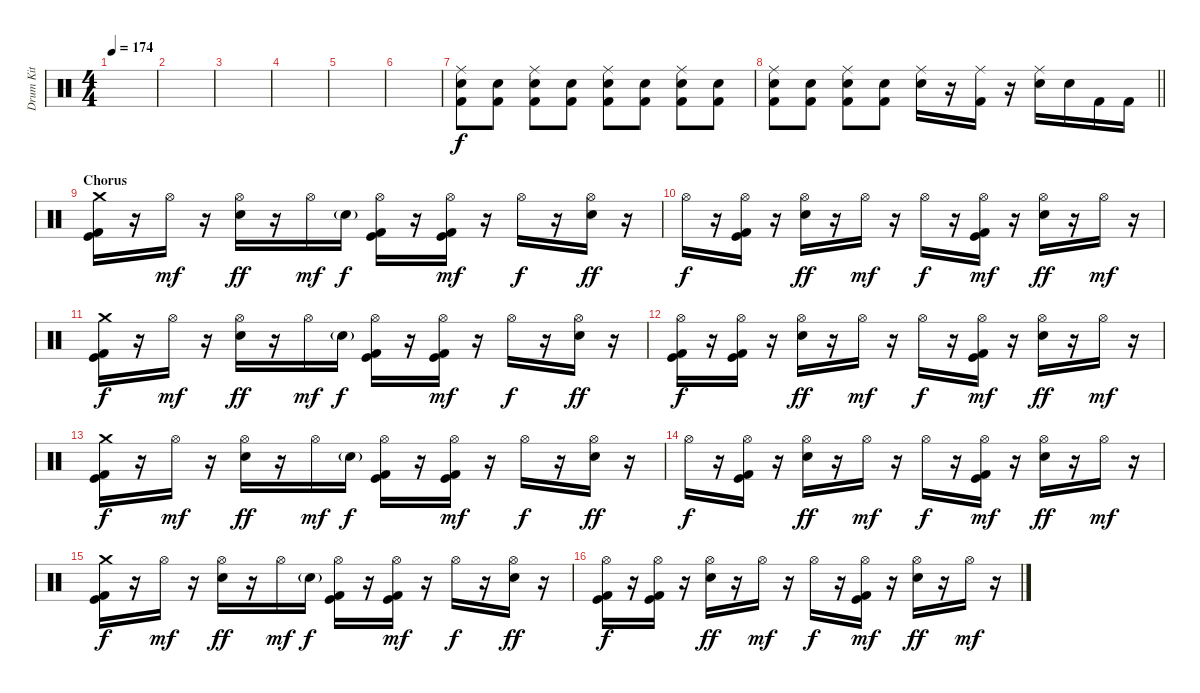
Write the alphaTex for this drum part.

\track ("Drum Kit" "Drum Kit") {instrument percussion}
\staff {score}
\articulation defaults
\ts (4 4)
\tempo 174
\clef neutral
\ks c
|
|
|
|
|
|
("Ride (middle)" "Electric Snare (hit)" "Kick (hit) 2").8 ("Electric Snare (hit)" "Kick (hit) 2").8 ("Ride (middle)" "Electric Snare (hit)" "Kick (hit) 2").8 ("Electric Snare (hit)" "Kick (hit) 2").8 ("Ride (middle)" "Electric Snare (hit)" "Kick (hit) 2").8 ("Electric Snare (hit)" "Kick (hit) 2").8 ("Ride (middle)" "Electric Snare (hit)" "Kick (hit) 2").8 ("Electric Snare (hit)" "Kick (hit) 2").8 |
\barLineRight lightlight
("Ride (middle)" "Electric Snare (hit)" "Kick (hit) 2").8 ("Electric Snare (hit)" "Kick (hit) 2").8 ("Ride (middle)" "Electric Snare (hit)" "Kick (hit) 2").8 ("Electric Snare (hit)" "Kick (hit) 2").8 ("Ride (middle)" "Electric Snare (hit)").16 r.16 ("Ride (middle)" "Kick (hit) 2").16 r.16 ("Ride (middle)" "Electric Snare (hit)").16 "Electric Snare (hit)".16 "Kick (hit) 2".16 "Kick (hit) 2".16 |
\section ("" "Chorus")
("Crash medium (hit)" "Kick (hit)" "Kick (hit) 2").16{dy f} r.16 "Hi-Hat (open)".16{dy mf} r.16 ("Hi-Hat (open)" "Electric Snare (hit)").16{dy ff} r.16 "Hi-Hat (open)".16{dy mf} "Electric Snare (hit)"{g}.16{dy f} ("Hi-Hat (open)" "Kick (hit)" "Kick (hit) 2").16 r.16 ("Hi-Hat (open)" "Kick (hit)" "Kick (hit) 2").16{dy mf} r.16 "Hi-Hat (open)".16{dy f} r.16 ("Hi-Hat (open)" "Electric Snare (hit)").16{dy ff} r.16 |
"Hi-Hat (open)".16{dy f} r.16 ("Hi-Hat (open)" "Kick (hit)" "Kick (hit) 2").16 r.16 ("Hi-Hat (open)" "Electric Snare (hit)").16{dy ff} r.16 "Hi-Hat (open)".16{dy mf} r.16 "Hi-Hat (open)".16{dy f} r.16 ("Hi-Hat (open)" "Kick (hit)" "Kick (hit) 2").16{dy mf} r.16 ("Hi-Hat (open)" "Electric Snare (hit)").16{dy ff} r.16 "Hi-Hat (open)".16{dy mf} r.16 |
("Crash medium (hit)" "Kick (hit)" "Kick (hit) 2").16{dy f} r.16 "Hi-Hat (open)".16{dy mf} r.16 ("Hi-Hat (open)" "Electric Snare (hit)").16{dy ff} r.16 "Hi-Hat (open)".16{dy mf} "Electric Snare (hit)"{g}.16{dy f} ("Hi-Hat (open)" "Kick (hit)" "Kick (hit) 2").16 r.16 ("Hi-Hat (open)" "Kick (hit)" "Kick (hit) 2").16{dy mf} r.16 "Hi-Hat (open)".16{dy f} r.16 ("Hi-Hat (open)" "Electric Snare (hit)").16{dy ff} r.16 |
("Hi-Hat (open)" "Kick (hit)" "Kick (hit) 2").16{dy f} r.16 ("Hi-Hat (open)" "Kick (hit)" "Kick (hit) 2").16 r.16 ("Hi-Hat (open)" "Electric Snare (hit)").16{dy ff} r.16 "Hi-Hat (open)".16{dy mf} r.16 "Hi-Hat (open)".16{dy f} r.16 ("Hi-Hat (open)" "Kick (hit)" "Kick (hit) 2").16{dy mf} r.16 ("Hi-Hat (open)" "Electric Snare (hit)").16{dy ff} r.16 "Hi-Hat (open)".16{dy mf} r.16 |
("Crash medium (hit)" "Kick (hit)" "Kick (hit) 2").16{dy f} r.16 "Hi-Hat (open)".16{dy mf} r.16 ("Hi-Hat (open)" "Electric Snare (hit)").16{dy ff} r.16 "Hi-Hat (open)".16{dy mf} "Electric Snare (hit)"{g}.16{dy f} ("Hi-Hat (open)" "Kick (hit)" "Kick (hit) 2").16 r.16 ("Hi-Hat (open)" "Kick (hit)" "Kick (hit) 2").16{dy mf} r.16 "Hi-Hat (open)".16{dy f} r.16 ("Hi-Hat (open)" "Electric Snare (hit)").16{dy ff} r.16 |
"Hi-Hat (open)".16{dy f} r.16 ("Hi-Hat (open)" "Kick (hit)" "Kick (hit) 2").16 r.16 ("Hi-Hat (open)" "Electric Snare (hit)").16{dy ff} r.16 "Hi-Hat (open)".16{dy mf} r.16 "Hi-Hat (open)".16{dy f} r.16 ("Hi-Hat (open)" "Kick (hit)" "Kick (hit) 2").16{dy mf} r.16 ("Hi-Hat (open)" "Electric Snare (hit)").16{dy ff} r.16 "Hi-Hat (open)".16{dy mf} r.16 |
("Crash medium (hit)" "Kick (hit)" "Kick (hit) 2").16{dy f} r.16 "Hi-Hat (open)".16{dy mf} r.16 ("Hi-Hat (open)" "Electric Snare (hit)").16{dy ff} r.16 "Hi-Hat (open)".16{dy mf} "Electric Snare (hit)"{g}.16{dy f} ("Hi-Hat (open)" "Kick (hit)" "Kick (hit) 2").16 r.16 ("Hi-Hat (open)" "Kick (hit)" "Kick (hit) 2").16{dy mf} r.16 "Hi-Hat (open)".16{dy f} r.16 ("Hi-Hat (open)" "Electric Snare (hit)").16{dy ff} r.16 |
("Hi-Hat (open)" "Kick (hit)" "Kick (hit) 2").16{dy f} r.16 ("Hi-Hat (open)" "Kick (hit)" "Kick (hit) 2").16 r.16 ("Hi-Hat (open)" "Electric Snare (hit)").16{dy ff} r.16 "Hi-Hat (open)".16{dy mf} r.16 "Hi-Hat (open)".16{dy f} r.16 ("Hi-Hat (open)" "Kick (hit)" "Kick (hit) 2").16{dy mf} r.16 ("Hi-Hat (open)" "Electric Snare (hit)").16{dy ff} r.16 "Hi-Hat (open)".16{dy mf} r.16
